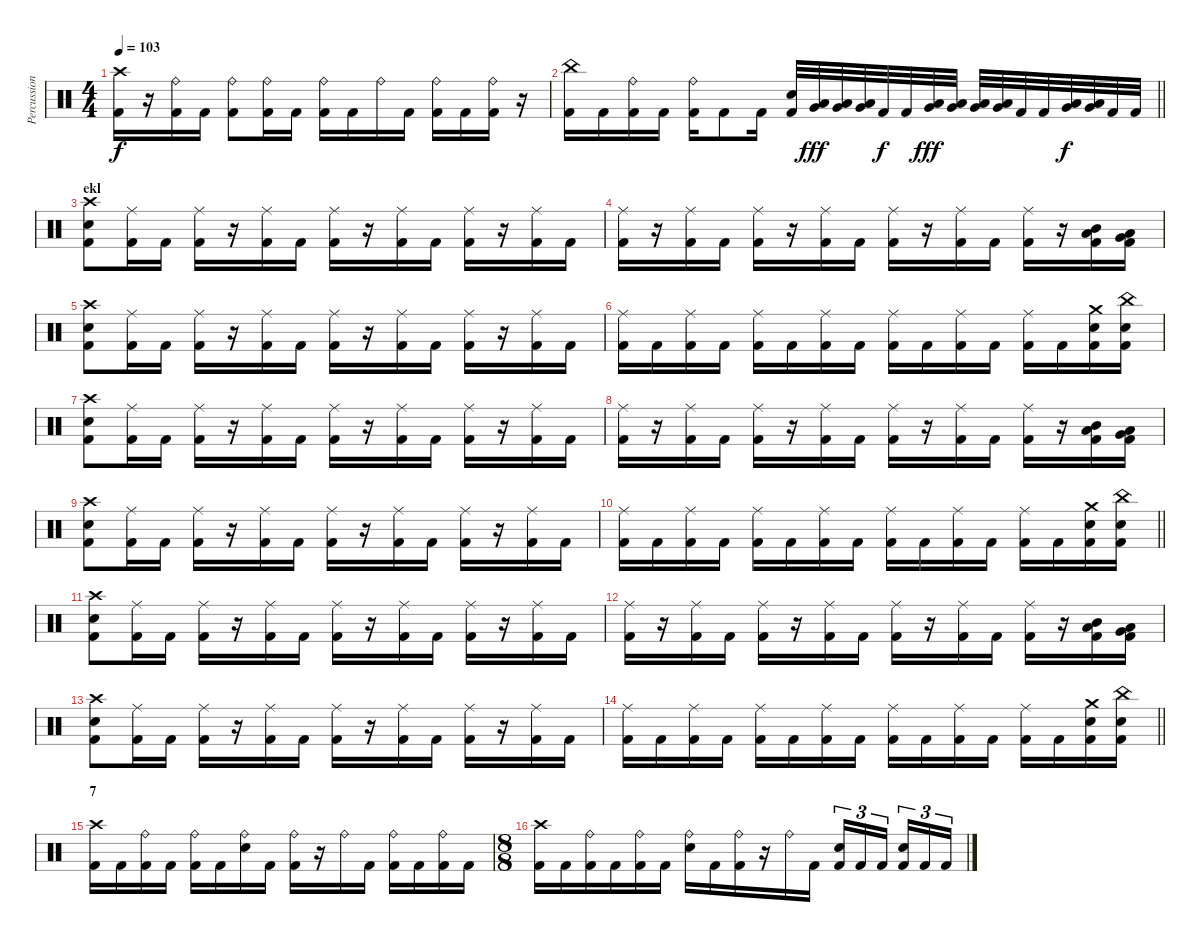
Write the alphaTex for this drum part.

\track ("Percussion" "Percussion") {instrument percussion}
\staff {score}
\articulation defaults
\ts (4 4)
\tempo 103
\clef neutral
\ks c
("Crash high (hit)" "Kick (hit) 2").16{dy f} r.16 ("Ride (bell)" "Kick (hit) 2").16 "Kick (hit) 2".16 ("Ride (bell)" "Kick (hit) 2").8 ("Ride (bell)" "Kick (hit) 2").16 "Kick (hit) 2".16 ("Ride (bell)" "Kick (hit) 2").16 "Kick (hit) 2".16 "Ride (bell)".16 "Kick (hit) 2".16 ("Ride (bell)" "Kick (hit) 2").16 "Kick (hit) 2".16 ("Ride (bell)" "Kick (hit) 2").16 r.16 |
\barLineRight lightlight
("China (hit)" "Kick (hit) 2").16 "Kick (hit) 2".16 ("Ride (bell)" "Kick (hit) 2").16 "Kick (hit) 2".16 ("Ride (bell)" "Kick (hit) 2").16 "Kick (hit) 2".8 "Kick (hit) 2".16 ("Electric Snare (hit)" "Kick (hit) 2").32 ("Low Tom (hit)" "Very Low Tom (hit)").32{dy fff} ("Low Tom (hit)" "Very Low Tom (hit)").32 ("Low Tom (hit)" "Very Low Tom (hit)").32 "Kick (hit) 2".32{dy f} "Kick (hit) 2".32 ("Low Tom (hit)" "Very Low Tom (hit)").32{dy fff} ("Low Tom (hit)" "Very Low Tom (hit)").32 ("Very Low Tom (hit)" "Low Floor Tom (hit)").32 ("Very Low Tom (hit)" "Low Floor Tom (hit)").32 "Kick (hit) 2".32 "Kick (hit) 2".32 ("Low Tom (hit)" "Very Low Tom (hit)").32{dy f} ("Low Tom (hit)" "Very Low Tom (hit)").32 "Kick (hit) 2".32 "Kick (hit) 2".32 |
\section ("" "ekl")
("Crash high (hit)" "Electric Snare (hit)" "Kick (hit) 2").8 ("Ride (middle)" "Kick (hit) 2").16 "Kick (hit) 2".16 ("Ride (middle)" "Kick (hit) 2").16 r.16 ("Ride (middle)" "Kick (hit) 2").16 "Kick (hit) 2".16 ("Ride (middle)" "Kick (hit) 2").16 r.16 ("Ride (middle)" "Kick (hit) 2").16 "Kick (hit) 2".16 ("Ride (middle)" "Kick (hit) 2").16 r.16 ("Ride (middle)" "Kick (hit) 2").16 "Kick (hit) 2".16 |
("Ride (middle)" "Kick (hit) 2").16 r.16 ("Ride (middle)" "Kick (hit) 2").16 "Kick (hit) 2".16 ("Ride (middle)" "Kick (hit) 2").16 r.16 ("Ride (middle)" "Kick (hit) 2").16 "Kick (hit) 2".16 ("Ride (middle)" "Kick (hit) 2").16 r.16 ("Ride (middle)" "Kick (hit) 2").16 "Kick (hit) 2".16 ("Ride (middle)" "Kick (hit) 2").16 r.16 ("Mid Tom (hit)" "Low Tom (hit)" "Kick (hit) 2").16 ("Low Tom (hit)" "Very Low Tom (hit)" "Kick (hit) 2").16 |
("Crash high (hit)" "Electric Snare (hit)" "Kick (hit) 2").8 ("Ride (middle)" "Kick (hit) 2").16 "Kick (hit) 2".16 ("Ride (middle)" "Kick (hit) 2").16 r.16 ("Ride (middle)" "Kick (hit) 2").16 "Kick (hit) 2".16 ("Ride (middle)" "Kick (hit) 2").16 r.16 ("Ride (middle)" "Kick (hit) 2").16 "Kick (hit) 2".16 ("Ride (middle)" "Kick (hit) 2").16 r.16 ("Ride (middle)" "Kick (hit) 2").16 "Kick (hit) 2".16 |
("Ride (middle)" "Kick (hit) 2").16 "Kick (hit) 2".16 ("Ride (middle)" "Kick (hit) 2").16 "Kick (hit) 2".16 ("Ride (middle)" "Kick (hit) 2").16 "Kick (hit) 2".16 ("Ride (middle)" "Kick (hit) 2").16 "Kick (hit) 2".16 ("Ride (middle)" "Kick (hit) 2").16 "Kick (hit) 2".16 ("Ride (middle)" "Kick (hit) 2").16 "Kick (hit) 2".16 ("Ride (middle)" "Kick (hit) 2").16 "Kick (hit) 2".16 ("Crash medium (hit)" "Electric Snare (hit)" "Kick (hit) 2").16 ("China (hit)" "Electric Snare (hit)" "Kick (hit) 2").16 |
("Crash high (hit)" "Electric Snare (hit)" "Kick (hit) 2").8 ("Ride (middle)" "Kick (hit) 2").16 "Kick (hit) 2".16 ("Ride (middle)" "Kick (hit) 2").16 r.16 ("Ride (middle)" "Kick (hit) 2").16 "Kick (hit) 2".16 ("Ride (middle)" "Kick (hit) 2").16 r.16 ("Ride (middle)" "Kick (hit) 2").16 "Kick (hit) 2".16 ("Ride (middle)" "Kick (hit) 2").16 r.16 ("Ride (middle)" "Kick (hit) 2").16 "Kick (hit) 2".16 |
("Ride (middle)" "Kick (hit) 2").16 r.16 ("Ride (middle)" "Kick (hit) 2").16 "Kick (hit) 2".16 ("Ride (middle)" "Kick (hit) 2").16 r.16 ("Ride (middle)" "Kick (hit) 2").16 "Kick (hit) 2".16 ("Ride (middle)" "Kick (hit) 2").16 r.16 ("Ride (middle)" "Kick (hit) 2").16 "Kick (hit) 2".16 ("Ride (middle)" "Kick (hit) 2").16 r.16 ("Mid Tom (hit)" "Low Tom (hit)" "Kick (hit) 2").16 ("Low Tom (hit)" "Very Low Tom (hit)" "Kick (hit) 2").16 |
("Crash high (hit)" "Electric Snare (hit)" "Kick (hit) 2").8 ("Ride (middle)" "Kick (hit) 2").16 "Kick (hit) 2".16 ("Ride (middle)" "Kick (hit) 2").16 r.16 ("Ride (middle)" "Kick (hit) 2").16 "Kick (hit) 2".16 ("Ride (middle)" "Kick (hit) 2").16 r.16 ("Ride (middle)" "Kick (hit) 2").16 "Kick (hit) 2".16 ("Ride (middle)" "Kick (hit) 2").16 r.16 ("Ride (middle)" "Kick (hit) 2").16 "Kick (hit) 2".16 |
\barLineRight lightlight
("Ride (middle)" "Kick (hit) 2").16 "Kick (hit) 2".16 ("Ride (middle)" "Kick (hit) 2").16 "Kick (hit) 2".16 ("Ride (middle)" "Kick (hit) 2").16 "Kick (hit) 2".16 ("Ride (middle)" "Kick (hit) 2").16 "Kick (hit) 2".16 ("Ride (middle)" "Kick (hit) 2").16 "Kick (hit) 2".16 ("Ride (middle)" "Kick (hit) 2").16 "Kick (hit) 2".16 ("Ride (middle)" "Kick (hit) 2").16 "Kick (hit) 2".16 ("Crash medium (hit)" "Electric Snare (hit)" "Kick (hit) 2").16 ("China (hit)" "Electric Snare (hit)" "Kick (hit) 2").16 |
("Crash high (hit)" "Electric Snare (hit)" "Kick (hit) 2").8 ("Ride (middle)" "Kick (hit) 2").16 "Kick (hit) 2".16 ("Ride (middle)" "Kick (hit) 2").16 r.16 ("Ride (middle)" "Kick (hit) 2").16 "Kick (hit) 2".16 ("Ride (middle)" "Kick (hit) 2").16 r.16 ("Ride (middle)" "Kick (hit) 2").16 "Kick (hit) 2".16 ("Ride (middle)" "Kick (hit) 2").16 r.16 ("Ride (middle)" "Kick (hit) 2").16 "Kick (hit) 2".16 |
("Ride (middle)" "Kick (hit) 2").16 r.16 ("Ride (middle)" "Kick (hit) 2").16 "Kick (hit) 2".16 ("Ride (middle)" "Kick (hit) 2").16 r.16 ("Ride (middle)" "Kick (hit) 2").16 "Kick (hit) 2".16 ("Ride (middle)" "Kick (hit) 2").16 r.16 ("Ride (middle)" "Kick (hit) 2").16 "Kick (hit) 2".16 ("Ride (middle)" "Kick (hit) 2").16 r.16 ("Mid Tom (hit)" "Low Tom (hit)" "Kick (hit) 2").16 ("Low Tom (hit)" "Very Low Tom (hit)" "Kick (hit) 2").16 |
("Crash high (hit)" "Electric Snare (hit)" "Kick (hit) 2").8 ("Ride (middle)" "Kick (hit) 2").16 "Kick (hit) 2".16 ("Ride (middle)" "Kick (hit) 2").16 r.16 ("Ride (middle)" "Kick (hit) 2").16 "Kick (hit) 2".16 ("Ride (middle)" "Kick (hit) 2").16 r.16 ("Ride (middle)" "Kick (hit) 2").16 "Kick (hit) 2".16 ("Ride (middle)" "Kick (hit) 2").16 r.16 ("Ride (middle)" "Kick (hit) 2").16 "Kick (hit) 2".16 |
\barLineRight lightlight
("Ride (middle)" "Kick (hit) 2").16 "Kick (hit) 2".16 ("Ride (middle)" "Kick (hit) 2").16 "Kick (hit) 2".16 ("Ride (middle)" "Kick (hit) 2").16 "Kick (hit) 2".16 ("Ride (middle)" "Kick (hit) 2").16 "Kick (hit) 2".16 ("Ride (middle)" "Kick (hit) 2").16 "Kick (hit) 2".16 ("Ride (middle)" "Kick (hit) 2").16 "Kick (hit) 2".16 ("Ride (middle)" "Kick (hit) 2").16 "Kick (hit) 2".16 ("Crash medium (hit)" "Electric Snare (hit)" "Kick (hit) 2").16 ("China (hit)" "Electric Snare (hit)" "Kick (hit) 2").16 |
\section ("" "7")
("Crash high (hit)" "Kick (hit) 2").16 "Kick (hit) 2".16 ("Ride (bell)" "Kick (hit) 2").16 "Kick (hit) 2".16 ("Ride (bell)" "Kick (hit) 2").16 "Kick (hit) 2".16 ("Ride (bell)" "Electric Snare (hit)").16 "Kick (hit) 2".16 ("Ride (bell)" "Kick (hit) 2").16 r.16 "Ride (bell)".16 "Kick (hit) 2".16 ("Ride (bell)" "Kick (hit) 2").16 "Kick (hit) 2".16 ("Ride (bell)" "Kick (hit) 2").16 "Kick (hit) 2".16 |
\ts (8 8)
("Crash high (hit)" "Kick (hit) 2").16 "Kick (hit) 2".16 ("Ride (bell)" "Kick (hit) 2").16 "Kick (hit) 2".16 ("Ride (bell)" "Kick (hit) 2").16 "Kick (hit) 2".16 ("Ride (bell)" "Electric Snare (hit)").16 "Kick (hit) 2".16 ("Ride (bell)" "Kick (hit) 2").16 r.16 "Ride (bell)".16 "Kick (hit) 2".16 ("Electric Snare (hit)" "Kick (hit) 2").16{tu (3 2)} "Kick (hit) 2".16{tu (3 2)} "Kick (hit) 2".16{tu (3 2)} ("Electric Snare (hit)" "Kick (hit) 2").16{tu (3 2)} "Kick (hit) 2".16{tu (3 2)} "Kick (hit) 2".16{tu (3 2)}
